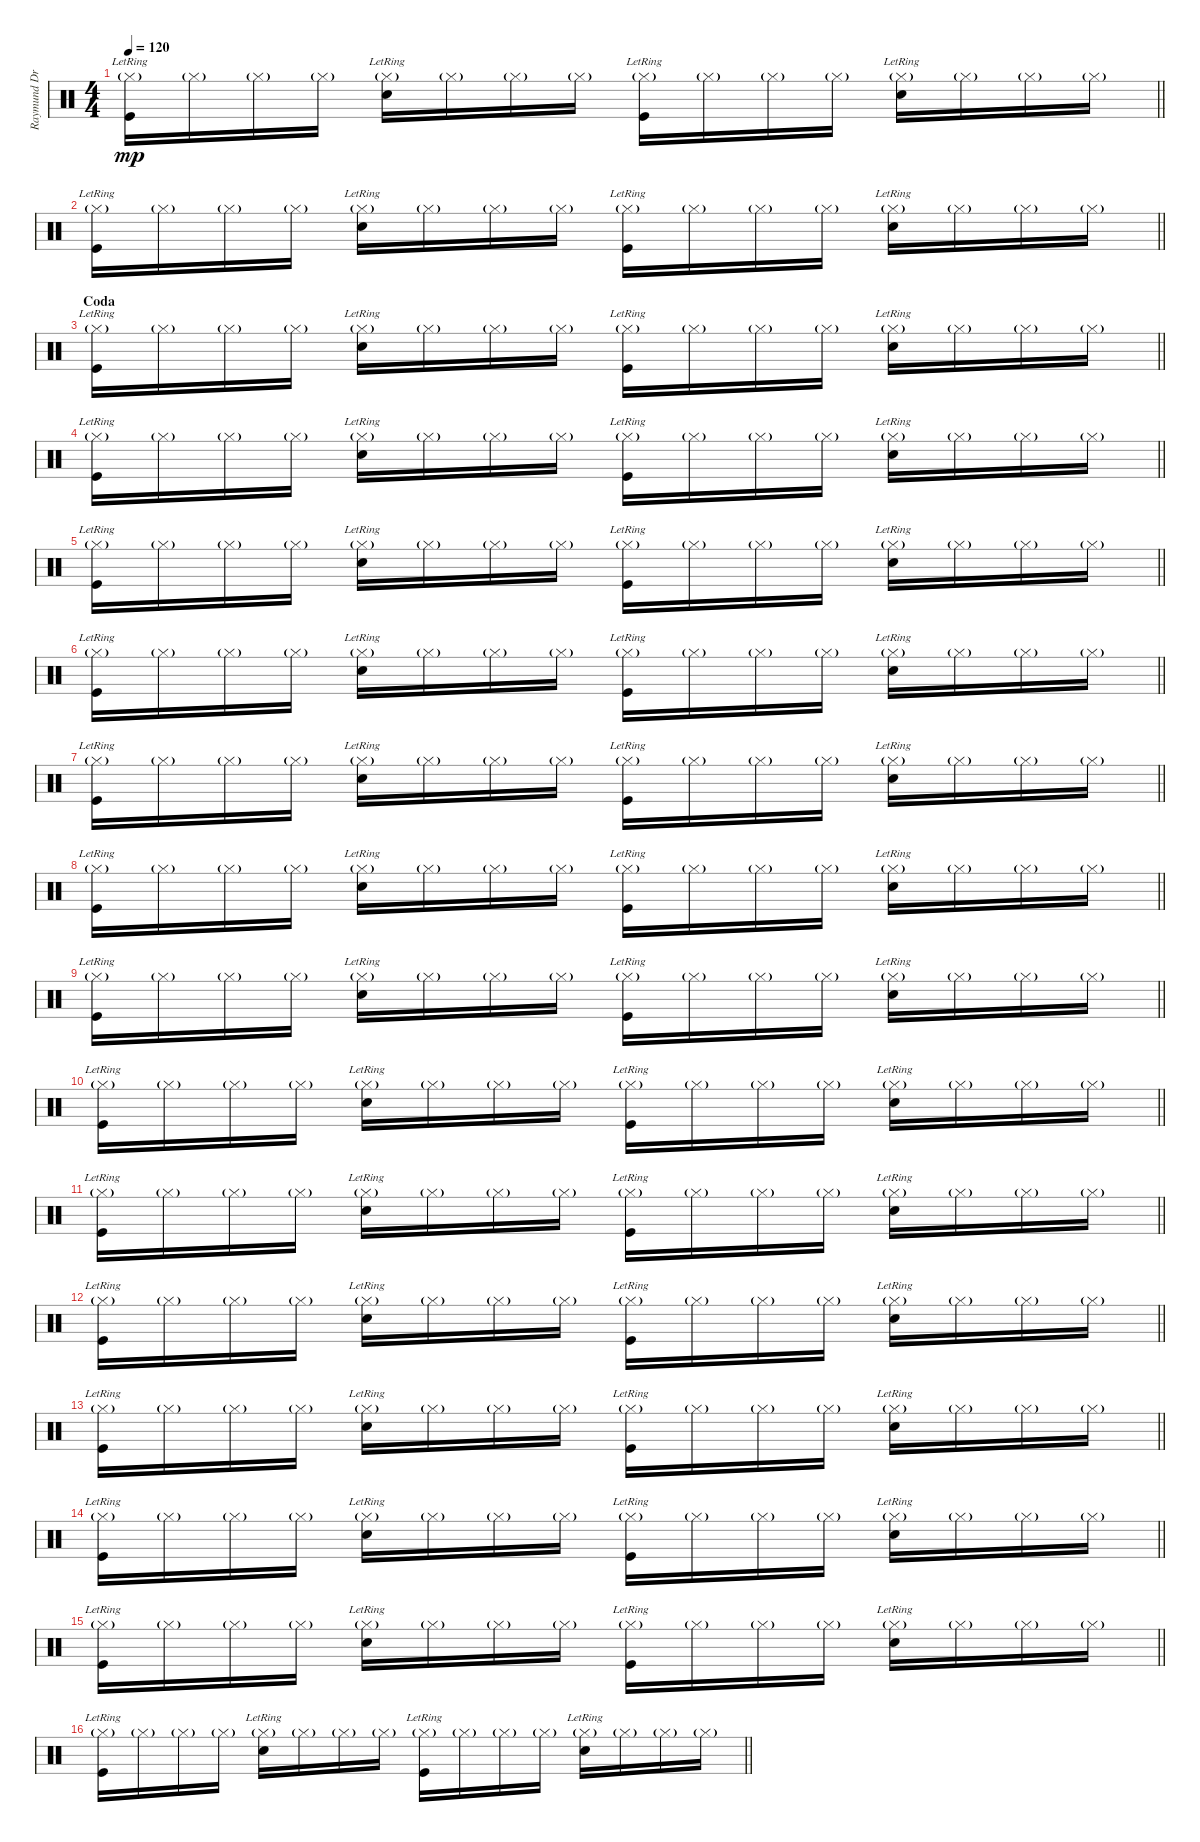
\track ("Raymund Drums" "Raymund Dr") {instrument percussion}
\staff {score}
\articulation defaults
\ts (4 4)
\tempo 120
\clef neutral
\barLineRight lightlight
\ks c
("Hi-Hat (closed)"{g} "Kick (hit)"{lr}).16{dy mp} "Hi-Hat (closed)"{g}.16 "Hi-Hat (closed)"{g}.16 "Hi-Hat (closed)"{g}.16 ("Hi-Hat (closed)"{g} "Snare (hit) 2"{lr}).16 "Hi-Hat (closed)"{g}.16 "Hi-Hat (closed)"{g}.16 "Hi-Hat (closed)"{g}.16 ("Hi-Hat (closed)"{g} "Kick (hit)"{lr}).16 "Hi-Hat (closed)"{g}.16 "Hi-Hat (closed)"{g}.16 "Hi-Hat (closed)"{g}.16 ("Hi-Hat (closed)"{g} "Snare (hit) 2"{lr}).16 "Hi-Hat (closed)"{g}.16 "Hi-Hat (closed)"{g}.16 "Hi-Hat (closed)"{g}.16 |
\barLineRight lightlight
("Hi-Hat (closed)"{g} "Kick (hit)"{lr}).16 "Hi-Hat (closed)"{g}.16 "Hi-Hat (closed)"{g}.16 "Hi-Hat (closed)"{g}.16 ("Hi-Hat (closed)"{g} "Snare (hit) 2"{lr}).16 "Hi-Hat (closed)"{g}.16 "Hi-Hat (closed)"{g}.16 "Hi-Hat (closed)"{g}.16 ("Hi-Hat (closed)"{g} "Kick (hit)"{lr}).16 "Hi-Hat (closed)"{g}.16 "Hi-Hat (closed)"{g}.16 "Hi-Hat (closed)"{g}.16 ("Hi-Hat (closed)"{g} "Snare (hit) 2"{lr}).16 "Hi-Hat (closed)"{g}.16 "Hi-Hat (closed)"{g}.16 "Hi-Hat (closed)"{g}.16 |
\section ("" "Coda")
\barLineRight lightlight
("Hi-Hat (closed)"{g} "Kick (hit)"{lr}).16 "Hi-Hat (closed)"{g}.16 "Hi-Hat (closed)"{g}.16 "Hi-Hat (closed)"{g}.16 ("Hi-Hat (closed)"{g} "Snare (hit) 2"{lr}).16 "Hi-Hat (closed)"{g}.16 "Hi-Hat (closed)"{g}.16 "Hi-Hat (closed)"{g}.16 ("Hi-Hat (closed)"{g} "Kick (hit)"{lr}).16 "Hi-Hat (closed)"{g}.16 "Hi-Hat (closed)"{g}.16 "Hi-Hat (closed)"{g}.16 ("Hi-Hat (closed)"{g} "Snare (hit) 2"{lr}).16 "Hi-Hat (closed)"{g}.16 "Hi-Hat (closed)"{g}.16 "Hi-Hat (closed)"{g}.16 |
\barLineRight lightlight
("Hi-Hat (closed)"{g} "Kick (hit)"{lr}).16 "Hi-Hat (closed)"{g}.16 "Hi-Hat (closed)"{g}.16 "Hi-Hat (closed)"{g}.16 ("Hi-Hat (closed)"{g} "Snare (hit) 2"{lr}).16 "Hi-Hat (closed)"{g}.16 "Hi-Hat (closed)"{g}.16 "Hi-Hat (closed)"{g}.16 ("Hi-Hat (closed)"{g} "Kick (hit)"{lr}).16 "Hi-Hat (closed)"{g}.16 "Hi-Hat (closed)"{g}.16 "Hi-Hat (closed)"{g}.16 ("Hi-Hat (closed)"{g} "Snare (hit) 2"{lr}).16 "Hi-Hat (closed)"{g}.16 "Hi-Hat (closed)"{g}.16 "Hi-Hat (closed)"{g}.16 |
\barLineRight lightlight
("Hi-Hat (closed)"{g} "Kick (hit)"{lr}).16 "Hi-Hat (closed)"{g}.16 "Hi-Hat (closed)"{g}.16 "Hi-Hat (closed)"{g}.16 ("Hi-Hat (closed)"{g} "Snare (hit) 2"{lr}).16 "Hi-Hat (closed)"{g}.16 "Hi-Hat (closed)"{g}.16 "Hi-Hat (closed)"{g}.16 ("Hi-Hat (closed)"{g} "Kick (hit)"{lr}).16 "Hi-Hat (closed)"{g}.16 "Hi-Hat (closed)"{g}.16 "Hi-Hat (closed)"{g}.16 ("Hi-Hat (closed)"{g} "Snare (hit) 2"{lr}).16 "Hi-Hat (closed)"{g}.16 "Hi-Hat (closed)"{g}.16 "Hi-Hat (closed)"{g}.16 |
\barLineRight lightlight
("Hi-Hat (closed)"{g} "Kick (hit)"{lr}).16 "Hi-Hat (closed)"{g}.16 "Hi-Hat (closed)"{g}.16 "Hi-Hat (closed)"{g}.16 ("Hi-Hat (closed)"{g} "Snare (hit) 2"{lr}).16 "Hi-Hat (closed)"{g}.16 "Hi-Hat (closed)"{g}.16 "Hi-Hat (closed)"{g}.16 ("Hi-Hat (closed)"{g} "Kick (hit)"{lr}).16 "Hi-Hat (closed)"{g}.16 "Hi-Hat (closed)"{g}.16 "Hi-Hat (closed)"{g}.16 ("Hi-Hat (closed)"{g} "Snare (hit) 2"{lr}).16 "Hi-Hat (closed)"{g}.16 "Hi-Hat (closed)"{g}.16 "Hi-Hat (closed)"{g}.16 |
\barLineRight lightlight
("Hi-Hat (closed)"{g} "Kick (hit)"{lr}).16 "Hi-Hat (closed)"{g}.16 "Hi-Hat (closed)"{g}.16 "Hi-Hat (closed)"{g}.16 ("Hi-Hat (closed)"{g} "Snare (hit) 2"{lr}).16 "Hi-Hat (closed)"{g}.16 "Hi-Hat (closed)"{g}.16 "Hi-Hat (closed)"{g}.16 ("Hi-Hat (closed)"{g} "Kick (hit)"{lr}).16 "Hi-Hat (closed)"{g}.16 "Hi-Hat (closed)"{g}.16 "Hi-Hat (closed)"{g}.16 ("Hi-Hat (closed)"{g} "Snare (hit) 2"{lr}).16 "Hi-Hat (closed)"{g}.16 "Hi-Hat (closed)"{g}.16 "Hi-Hat (closed)"{g}.16 |
\barLineRight lightlight
("Hi-Hat (closed)"{g} "Kick (hit)"{lr}).16 "Hi-Hat (closed)"{g}.16 "Hi-Hat (closed)"{g}.16 "Hi-Hat (closed)"{g}.16 ("Hi-Hat (closed)"{g} "Snare (hit) 2"{lr}).16 "Hi-Hat (closed)"{g}.16 "Hi-Hat (closed)"{g}.16 "Hi-Hat (closed)"{g}.16 ("Hi-Hat (closed)"{g} "Kick (hit)"{lr}).16 "Hi-Hat (closed)"{g}.16 "Hi-Hat (closed)"{g}.16 "Hi-Hat (closed)"{g}.16 ("Hi-Hat (closed)"{g} "Snare (hit) 2"{lr}).16 "Hi-Hat (closed)"{g}.16 "Hi-Hat (closed)"{g}.16 "Hi-Hat (closed)"{g}.16 |
\barLineRight lightlight
("Hi-Hat (closed)"{g} "Kick (hit)"{lr}).16 "Hi-Hat (closed)"{g}.16 "Hi-Hat (closed)"{g}.16 "Hi-Hat (closed)"{g}.16 ("Hi-Hat (closed)"{g} "Snare (hit) 2"{lr}).16 "Hi-Hat (closed)"{g}.16 "Hi-Hat (closed)"{g}.16 "Hi-Hat (closed)"{g}.16 ("Hi-Hat (closed)"{g} "Kick (hit)"{lr}).16 "Hi-Hat (closed)"{g}.16 "Hi-Hat (closed)"{g}.16 "Hi-Hat (closed)"{g}.16 ("Hi-Hat (closed)"{g} "Snare (hit) 2"{lr}).16 "Hi-Hat (closed)"{g}.16 "Hi-Hat (closed)"{g}.16 "Hi-Hat (closed)"{g}.16 |
\barLineRight lightlight
("Hi-Hat (closed)"{g} "Kick (hit)"{lr}).16 "Hi-Hat (closed)"{g}.16 "Hi-Hat (closed)"{g}.16 "Hi-Hat (closed)"{g}.16 ("Hi-Hat (closed)"{g} "Snare (hit) 2"{lr}).16 "Hi-Hat (closed)"{g}.16 "Hi-Hat (closed)"{g}.16 "Hi-Hat (closed)"{g}.16 ("Hi-Hat (closed)"{g} "Kick (hit)"{lr}).16 "Hi-Hat (closed)"{g}.16 "Hi-Hat (closed)"{g}.16 "Hi-Hat (closed)"{g}.16 ("Hi-Hat (closed)"{g} "Snare (hit) 2"{lr}).16 "Hi-Hat (closed)"{g}.16 "Hi-Hat (closed)"{g}.16 "Hi-Hat (closed)"{g}.16 |
\barLineRight lightlight
("Hi-Hat (closed)"{g} "Kick (hit)"{lr}).16 "Hi-Hat (closed)"{g}.16 "Hi-Hat (closed)"{g}.16 "Hi-Hat (closed)"{g}.16 ("Hi-Hat (closed)"{g} "Snare (hit) 2"{lr}).16 "Hi-Hat (closed)"{g}.16 "Hi-Hat (closed)"{g}.16 "Hi-Hat (closed)"{g}.16 ("Hi-Hat (closed)"{g} "Kick (hit)"{lr}).16 "Hi-Hat (closed)"{g}.16 "Hi-Hat (closed)"{g}.16 "Hi-Hat (closed)"{g}.16 ("Hi-Hat (closed)"{g} "Snare (hit) 2"{lr}).16 "Hi-Hat (closed)"{g}.16 "Hi-Hat (closed)"{g}.16 "Hi-Hat (closed)"{g}.16 |
\barLineRight lightlight
("Hi-Hat (closed)"{g} "Kick (hit)"{lr}).16 "Hi-Hat (closed)"{g}.16 "Hi-Hat (closed)"{g}.16 "Hi-Hat (closed)"{g}.16 ("Hi-Hat (closed)"{g} "Snare (hit) 2"{lr}).16 "Hi-Hat (closed)"{g}.16 "Hi-Hat (closed)"{g}.16 "Hi-Hat (closed)"{g}.16 ("Hi-Hat (closed)"{g} "Kick (hit)"{lr}).16 "Hi-Hat (closed)"{g}.16 "Hi-Hat (closed)"{g}.16 "Hi-Hat (closed)"{g}.16 ("Hi-Hat (closed)"{g} "Snare (hit) 2"{lr}).16 "Hi-Hat (closed)"{g}.16 "Hi-Hat (closed)"{g}.16 "Hi-Hat (closed)"{g}.16 |
\barLineRight lightlight
("Hi-Hat (closed)"{g} "Kick (hit)"{lr}).16 "Hi-Hat (closed)"{g}.16 "Hi-Hat (closed)"{g}.16 "Hi-Hat (closed)"{g}.16 ("Hi-Hat (closed)"{g} "Snare (hit) 2"{lr}).16 "Hi-Hat (closed)"{g}.16 "Hi-Hat (closed)"{g}.16 "Hi-Hat (closed)"{g}.16 ("Hi-Hat (closed)"{g} "Kick (hit)"{lr}).16 "Hi-Hat (closed)"{g}.16 "Hi-Hat (closed)"{g}.16 "Hi-Hat (closed)"{g}.16 ("Hi-Hat (closed)"{g} "Snare (hit) 2"{lr}).16 "Hi-Hat (closed)"{g}.16 "Hi-Hat (closed)"{g}.16 "Hi-Hat (closed)"{g}.16 |
\barLineRight lightlight
("Hi-Hat (closed)"{g} "Kick (hit)"{lr}).16 "Hi-Hat (closed)"{g}.16 "Hi-Hat (closed)"{g}.16 "Hi-Hat (closed)"{g}.16 ("Hi-Hat (closed)"{g} "Snare (hit) 2"{lr}).16 "Hi-Hat (closed)"{g}.16 "Hi-Hat (closed)"{g}.16 "Hi-Hat (closed)"{g}.16 ("Hi-Hat (closed)"{g} "Kick (hit)"{lr}).16 "Hi-Hat (closed)"{g}.16 "Hi-Hat (closed)"{g}.16 "Hi-Hat (closed)"{g}.16 ("Hi-Hat (closed)"{g} "Snare (hit) 2"{lr}).16 "Hi-Hat (closed)"{g}.16 "Hi-Hat (closed)"{g}.16 "Hi-Hat (closed)"{g}.16 |
\barLineRight lightlight
("Hi-Hat (closed)"{g} "Kick (hit)"{lr}).16 "Hi-Hat (closed)"{g}.16 "Hi-Hat (closed)"{g}.16 "Hi-Hat (closed)"{g}.16 ("Hi-Hat (closed)"{g} "Snare (hit) 2"{lr}).16 "Hi-Hat (closed)"{g}.16 "Hi-Hat (closed)"{g}.16 "Hi-Hat (closed)"{g}.16 ("Hi-Hat (closed)"{g} "Kick (hit)"{lr}).16 "Hi-Hat (closed)"{g}.16 "Hi-Hat (closed)"{g}.16 "Hi-Hat (closed)"{g}.16 ("Hi-Hat (closed)"{g} "Snare (hit) 2"{lr}).16 "Hi-Hat (closed)"{g}.16 "Hi-Hat (closed)"{g}.16 "Hi-Hat (closed)"{g}.16 |
\barLineRight lightlight
("Hi-Hat (closed)"{g} "Kick (hit)"{lr}).16 "Hi-Hat (closed)"{g}.16 "Hi-Hat (closed)"{g}.16 "Hi-Hat (closed)"{g}.16 ("Hi-Hat (closed)"{g} "Snare (hit) 2"{lr}).16 "Hi-Hat (closed)"{g}.16 "Hi-Hat (closed)"{g}.16 "Hi-Hat (closed)"{g}.16 ("Hi-Hat (closed)"{g} "Kick (hit)"{lr}).16 "Hi-Hat (closed)"{g}.16 "Hi-Hat (closed)"{g}.16 "Hi-Hat (closed)"{g}.16 ("Hi-Hat (closed)"{g} "Snare (hit) 2"{lr}).16 "Hi-Hat (closed)"{g}.16 "Hi-Hat (closed)"{g}.16 "Hi-Hat (closed)"{g}.16
